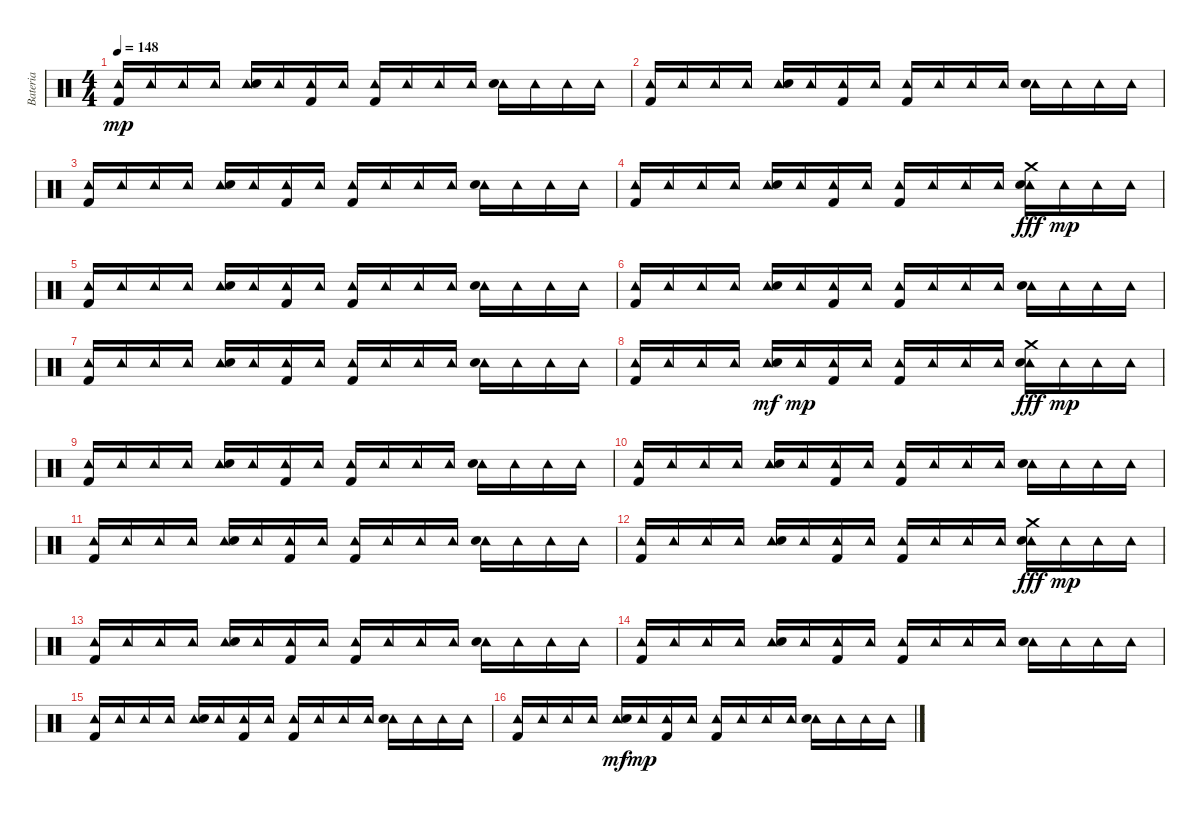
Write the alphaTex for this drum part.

\track ("Bateria" "Bateria") {instrument percussion}
\staff {score}
\articulation defaults
\ts (4 4)
\tempo 148
\clef neutral
\ks c
("Tambourine (hit)" "Kick (hit) 2").16{dy mp} "Tambourine (hit)".16 "Tambourine (hit)".16 "Tambourine (hit)".16 ("Tambourine (hit)" "Snare (hit) 2").16 "Tambourine (hit)".16 ("Tambourine (hit)" "Kick (hit) 2").16 "Tambourine (hit)".16 ("Tambourine (hit)" "Kick (hit) 2").16 "Tambourine (hit)".16 "Tambourine (hit)".16 "Tambourine (hit)".16 ("Tambourine (hit)" "Snare (hit) 2").16 "Tambourine (hit)".16 "Tambourine (hit)".16 "Tambourine (hit)".16 |
("Tambourine (hit)" "Kick (hit) 2").16 "Tambourine (hit)".16 "Tambourine (hit)".16 "Tambourine (hit)".16 ("Tambourine (hit)" "Snare (hit) 2").16 "Tambourine (hit)".16 ("Tambourine (hit)" "Kick (hit) 2").16 "Tambourine (hit)".16 ("Tambourine (hit)" "Kick (hit) 2").16 "Tambourine (hit)".16 "Tambourine (hit)".16 "Tambourine (hit)".16 ("Tambourine (hit)" "Snare (hit) 2").16 "Tambourine (hit)".16 "Tambourine (hit)".16 "Tambourine (hit)".16 |
("Tambourine (hit)" "Kick (hit) 2").16 "Tambourine (hit)".16 "Tambourine (hit)".16 "Tambourine (hit)".16 ("Tambourine (hit)" "Snare (hit) 2").16 "Tambourine (hit)".16 ("Tambourine (hit)" "Kick (hit) 2").16 "Tambourine (hit)".16 ("Tambourine (hit)" "Kick (hit) 2").16 "Tambourine (hit)".16 "Tambourine (hit)".16 "Tambourine (hit)".16 ("Tambourine (hit)" "Snare (hit) 2").16 "Tambourine (hit)".16 "Tambourine (hit)".16 "Tambourine (hit)".16 |
("Tambourine (hit)" "Kick (hit) 2").16 "Tambourine (hit)".16 "Tambourine (hit)".16 "Tambourine (hit)".16 ("Tambourine (hit)" "Snare (hit) 2").16 "Tambourine (hit)".16 ("Tambourine (hit)" "Kick (hit) 2").16 "Tambourine (hit)".16 ("Tambourine (hit)" "Kick (hit) 2").16 "Tambourine (hit)".16 "Tambourine (hit)".16 "Tambourine (hit)".16 ("Tambourine (hit)" "Crash medium (hit)" "Snare (hit) 2").16{dy fff} "Tambourine (hit)".16{dy mp} "Tambourine (hit)".16 "Tambourine (hit)".16 |
("Tambourine (hit)" "Kick (hit) 2").16 "Tambourine (hit)".16 "Tambourine (hit)".16 "Tambourine (hit)".16 ("Tambourine (hit)" "Snare (hit) 2").16 "Tambourine (hit)".16 ("Tambourine (hit)" "Kick (hit) 2").16 "Tambourine (hit)".16 ("Tambourine (hit)" "Kick (hit) 2").16 "Tambourine (hit)".16 "Tambourine (hit)".16 "Tambourine (hit)".16 ("Tambourine (hit)" "Snare (hit) 2").16 "Tambourine (hit)".16 "Tambourine (hit)".16 "Tambourine (hit)".16 |
("Tambourine (hit)" "Kick (hit) 2").16 "Tambourine (hit)".16 "Tambourine (hit)".16 "Tambourine (hit)".16 ("Tambourine (hit)" "Snare (hit) 2").16 "Tambourine (hit)".16 ("Tambourine (hit)" "Kick (hit) 2").16 "Tambourine (hit)".16 ("Tambourine (hit)" "Kick (hit) 2").16 "Tambourine (hit)".16 "Tambourine (hit)".16 "Tambourine (hit)".16 ("Tambourine (hit)" "Snare (hit) 2").16 "Tambourine (hit)".16 "Tambourine (hit)".16 "Tambourine (hit)".16 |
("Tambourine (hit)" "Kick (hit) 2").16 "Tambourine (hit)".16 "Tambourine (hit)".16 "Tambourine (hit)".16 ("Tambourine (hit)" "Snare (hit) 2").16 "Tambourine (hit)".16 ("Tambourine (hit)" "Kick (hit) 2").16 "Tambourine (hit)".16 ("Tambourine (hit)" "Kick (hit) 2").16 "Tambourine (hit)".16 "Tambourine (hit)".16 "Tambourine (hit)".16 ("Tambourine (hit)" "Snare (hit) 2").16 "Tambourine (hit)".16 "Tambourine (hit)".16 "Tambourine (hit)".16 |
("Tambourine (hit)" "Kick (hit) 2").16 "Tambourine (hit)".16 "Tambourine (hit)".16 "Tambourine (hit)".16 ("Tambourine (hit)" "Snare (hit) 2").16{dy mf} "Tambourine (hit)".16{dy mp} ("Tambourine (hit)" "Kick (hit) 2").16 "Tambourine (hit)".16 ("Tambourine (hit)" "Kick (hit) 2").16 "Tambourine (hit)".16 "Tambourine (hit)".16 "Tambourine (hit)".16 ("Tambourine (hit)" "Crash medium (hit)" "Snare (hit) 2").16{dy fff} "Tambourine (hit)".16{dy mp} "Tambourine (hit)".16 "Tambourine (hit)".16 |
("Tambourine (hit)" "Kick (hit) 2").16 "Tambourine (hit)".16 "Tambourine (hit)".16 "Tambourine (hit)".16 ("Tambourine (hit)" "Snare (hit) 2").16 "Tambourine (hit)".16 ("Tambourine (hit)" "Kick (hit) 2").16 "Tambourine (hit)".16 ("Tambourine (hit)" "Kick (hit) 2").16 "Tambourine (hit)".16 "Tambourine (hit)".16 "Tambourine (hit)".16 ("Tambourine (hit)" "Snare (hit) 2").16 "Tambourine (hit)".16 "Tambourine (hit)".16 "Tambourine (hit)".16 |
("Tambourine (hit)" "Kick (hit) 2").16 "Tambourine (hit)".16 "Tambourine (hit)".16 "Tambourine (hit)".16 ("Tambourine (hit)" "Snare (hit) 2").16 "Tambourine (hit)".16 ("Tambourine (hit)" "Kick (hit) 2").16 "Tambourine (hit)".16 ("Tambourine (hit)" "Kick (hit) 2").16 "Tambourine (hit)".16 "Tambourine (hit)".16 "Tambourine (hit)".16 ("Tambourine (hit)" "Snare (hit) 2").16 "Tambourine (hit)".16 "Tambourine (hit)".16 "Tambourine (hit)".16 |
("Tambourine (hit)" "Kick (hit) 2").16 "Tambourine (hit)".16 "Tambourine (hit)".16 "Tambourine (hit)".16 ("Tambourine (hit)" "Snare (hit) 2").16 "Tambourine (hit)".16 ("Tambourine (hit)" "Kick (hit) 2").16 "Tambourine (hit)".16 ("Tambourine (hit)" "Kick (hit) 2").16 "Tambourine (hit)".16 "Tambourine (hit)".16 "Tambourine (hit)".16 ("Tambourine (hit)" "Snare (hit) 2").16 "Tambourine (hit)".16 "Tambourine (hit)".16 "Tambourine (hit)".16 |
("Tambourine (hit)" "Kick (hit) 2").16 "Tambourine (hit)".16 "Tambourine (hit)".16 "Tambourine (hit)".16 ("Tambourine (hit)" "Snare (hit) 2").16 "Tambourine (hit)".16 ("Tambourine (hit)" "Kick (hit) 2").16 "Tambourine (hit)".16 ("Tambourine (hit)" "Kick (hit) 2").16 "Tambourine (hit)".16 "Tambourine (hit)".16 "Tambourine (hit)".16 ("Tambourine (hit)" "Crash medium (hit)" "Snare (hit) 2").16{dy fff} "Tambourine (hit)".16{dy mp} "Tambourine (hit)".16 "Tambourine (hit)".16 |
("Tambourine (hit)" "Kick (hit) 2").16 "Tambourine (hit)".16 "Tambourine (hit)".16 "Tambourine (hit)".16 ("Tambourine (hit)" "Snare (hit) 2").16 "Tambourine (hit)".16 ("Tambourine (hit)" "Kick (hit) 2").16 "Tambourine (hit)".16 ("Tambourine (hit)" "Kick (hit) 2").16 "Tambourine (hit)".16 "Tambourine (hit)".16 "Tambourine (hit)".16 ("Tambourine (hit)" "Snare (hit) 2").16 "Tambourine (hit)".16 "Tambourine (hit)".16 "Tambourine (hit)".16 |
("Tambourine (hit)" "Kick (hit) 2").16 "Tambourine (hit)".16 "Tambourine (hit)".16 "Tambourine (hit)".16 ("Tambourine (hit)" "Snare (hit) 2").16 "Tambourine (hit)".16 ("Tambourine (hit)" "Kick (hit) 2").16 "Tambourine (hit)".16 ("Tambourine (hit)" "Kick (hit) 2").16 "Tambourine (hit)".16 "Tambourine (hit)".16 "Tambourine (hit)".16 ("Tambourine (hit)" "Snare (hit) 2").16 "Tambourine (hit)".16 "Tambourine (hit)".16 "Tambourine (hit)".16 |
("Tambourine (hit)" "Kick (hit) 2").16 "Tambourine (hit)".16 "Tambourine (hit)".16 "Tambourine (hit)".16 ("Tambourine (hit)" "Snare (hit) 2").16 "Tambourine (hit)".16 ("Tambourine (hit)" "Kick (hit) 2").16 "Tambourine (hit)".16 ("Tambourine (hit)" "Kick (hit) 2").16 "Tambourine (hit)".16 "Tambourine (hit)".16 "Tambourine (hit)".16 ("Tambourine (hit)" "Snare (hit) 2").16 "Tambourine (hit)".16 "Tambourine (hit)".16 "Tambourine (hit)".16 |
("Tambourine (hit)" "Kick (hit) 2").16 "Tambourine (hit)".16 "Tambourine (hit)".16 "Tambourine (hit)".16 ("Tambourine (hit)" "Snare (hit) 2").16{dy mf} "Tambourine (hit)".16{dy mp} ("Tambourine (hit)" "Kick (hit) 2").16 "Tambourine (hit)".16 ("Tambourine (hit)" "Kick (hit) 2").16 "Tambourine (hit)".16 "Tambourine (hit)".16 "Tambourine (hit)".16 ("Tambourine (hit)" "Snare (hit) 2").16 "Tambourine (hit)".16 "Tambourine (hit)".16 "Tambourine (hit)".16
